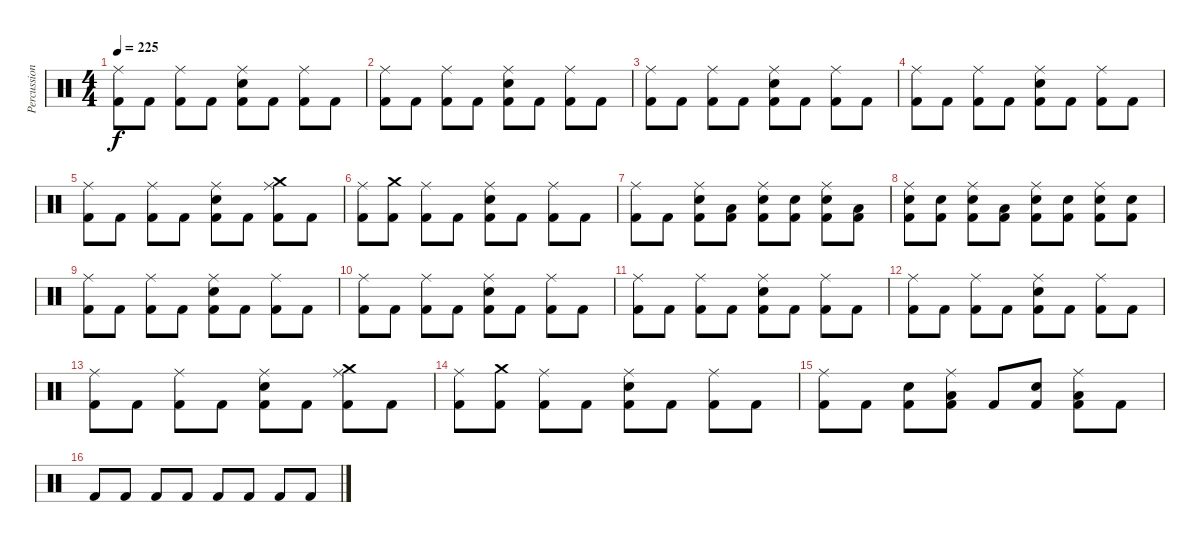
\track ("Percussion" "Percussion") {instrument percussion}
\staff {score}
\articulation defaults
\ts (4 4)
\tempo 225
\clef neutral
\ks c
("Ride (middle)" "Kick (hit) 2").8{dy f volume 13} "Kick (hit) 2".8 ("Ride (middle)" "Kick (hit) 2").8 "Kick (hit) 2".8 ("Ride (middle)" "Snare (hit) 2" "Kick (hit) 2").8 "Kick (hit) 2".8 ("Ride (middle)" "Kick (hit) 2").8 "Kick (hit) 2".8 |
("Ride (middle)" "Kick (hit) 2").8 "Kick (hit) 2".8 ("Ride (middle)" "Kick (hit) 2").8 "Kick (hit) 2".8 ("Ride (middle)" "Snare (hit) 2" "Kick (hit) 2").8 "Kick (hit) 2".8 ("Ride (middle)" "Kick (hit) 2").8 "Kick (hit) 2".8 |
("Ride (middle)" "Kick (hit) 2").8 "Kick (hit) 2".8 ("Ride (middle)" "Kick (hit) 2").8 "Kick (hit) 2".8 ("Ride (middle)" "Snare (hit) 2" "Kick (hit) 2").8 "Kick (hit) 2".8 ("Ride (middle)" "Kick (hit) 2").8 "Kick (hit) 2".8 |
("Ride (middle)" "Kick (hit) 2").8 "Kick (hit) 2".8 ("Ride (middle)" "Kick (hit) 2").8 "Kick (hit) 2".8 ("Ride (middle)" "Snare (hit) 2" "Kick (hit) 2").8 "Kick (hit) 2".8 ("Ride (middle)" "Kick (hit) 2").8 "Kick (hit) 2".8 |
("Ride (middle)" "Kick (hit) 2").8 "Kick (hit) 2".8 ("Ride (middle)" "Kick (hit) 2").8 "Kick (hit) 2".8 ("Ride (middle)" "Snare (hit) 2" "Kick (hit) 2").8 "Kick (hit) 2".8 ("Ride (middle)" "Crash medium (hit)" "Kick (hit) 2").8 "Kick (hit) 2".8 |
("Ride (middle)" "Kick (hit) 2").8 ("Crash medium (hit)" "Kick (hit) 2").8 ("Ride (middle)" "Kick (hit) 2").8 "Kick (hit) 2".8 ("Ride (middle)" "Snare (hit) 2" "Kick (hit) 2").8 "Kick (hit) 2".8 ("Ride (middle)" "Kick (hit) 2").8 "Kick (hit) 2".8 |
("Ride (middle)" "Kick (hit) 2").8 "Kick (hit) 2".8 ("Ride (middle)" "Electric Snare (hit)" "Kick (hit) 2").8 ("Low Floor Tom (hit)" "Kick (hit) 2").8 ("Ride (middle)" "Snare (hit) 2" "Kick (hit) 2").8 ("Snare (hit) 2" "Kick (hit) 2").8 ("Ride (middle)" "Electric Snare (hit)" "Kick (hit) 2").8 ("Low Floor Tom (hit)" "Kick (hit) 2").8 |
("Ride (middle)" "Snare (hit) 2" "Kick (hit) 2").8 ("Snare (hit) 2" "Kick (hit) 2").8 ("Ride (middle)" "Electric Snare (hit)" "Kick (hit) 2").8 ("Low Floor Tom (hit)" "Kick (hit) 2").8 ("Ride (middle)" "Snare (hit) 2" "Kick (hit) 2").8 ("Snare (hit) 2" "Kick (hit) 2").8 ("Ride (middle)" "Snare (hit) 2" "Kick (hit) 2").8 ("Snare (hit) 2" "Kick (hit) 2").8 |
("Ride (middle)" "Kick (hit) 2").8 "Kick (hit) 2".8 ("Ride (middle)" "Kick (hit) 2").8 "Kick (hit) 2".8 ("Ride (middle)" "Snare (hit) 2" "Kick (hit) 2").8 "Kick (hit) 2".8 ("Ride (middle)" "Kick (hit) 2").8 "Kick (hit) 2".8 |
("Ride (middle)" "Kick (hit) 2").8 "Kick (hit) 2".8 ("Ride (middle)" "Kick (hit) 2").8 "Kick (hit) 2".8 ("Ride (middle)" "Snare (hit) 2" "Kick (hit) 2").8 "Kick (hit) 2".8 ("Ride (middle)" "Kick (hit) 2").8 "Kick (hit) 2".8 |
("Ride (middle)" "Kick (hit) 2").8 "Kick (hit) 2".8 ("Ride (middle)" "Kick (hit) 2").8 "Kick (hit) 2".8 ("Ride (middle)" "Snare (hit) 2" "Kick (hit) 2").8 "Kick (hit) 2".8 ("Ride (middle)" "Kick (hit) 2").8 "Kick (hit) 2".8 |
("Ride (middle)" "Kick (hit) 2").8 "Kick (hit) 2".8 ("Ride (middle)" "Kick (hit) 2").8 "Kick (hit) 2".8 ("Ride (middle)" "Snare (hit) 2" "Kick (hit) 2").8 "Kick (hit) 2".8 ("Ride (middle)" "Kick (hit) 2").8 "Kick (hit) 2".8 |
("Ride (middle)" "Kick (hit) 2").8 "Kick (hit) 2".8 ("Ride (middle)" "Kick (hit) 2").8 "Kick (hit) 2".8 ("Ride (middle)" "Snare (hit) 2" "Kick (hit) 2").8 "Kick (hit) 2".8 ("Ride (middle)" "Crash medium (hit)" "Kick (hit) 2").8 "Kick (hit) 2".8 |
("Ride (middle)" "Kick (hit) 2").8 ("Crash medium (hit)" "Kick (hit) 2").8 ("Ride (middle)" "Kick (hit) 2").8 "Kick (hit) 2".8 ("Ride (middle)" "Snare (hit) 2" "Kick (hit) 2").8 "Kick (hit) 2".8 ("Ride (middle)" "Kick (hit) 2").8 "Kick (hit) 2".8 |
("Ride (middle)" "Kick (hit) 2").8 "Kick (hit) 2".8 ("Snare (hit) 2" "Kick (hit) 2").8 ("Ride (middle)" "Low Tom (hit)" "Kick (hit) 2").8 "Kick (hit) 2".8 ("Snare (hit) 2" "Kick (hit) 2").8 ("Ride (middle)" "Low Tom (hit)" "Kick (hit) 2").8 "Kick (hit) 2".8 |
"Kick (hit) 2".8 "Kick (hit) 2".8 "Kick (hit) 2".8 "Kick (hit) 2".8 "Kick (hit) 2".8 "Kick (hit) 2".8 "Kick (hit) 2".8 "Kick (hit) 2".8
